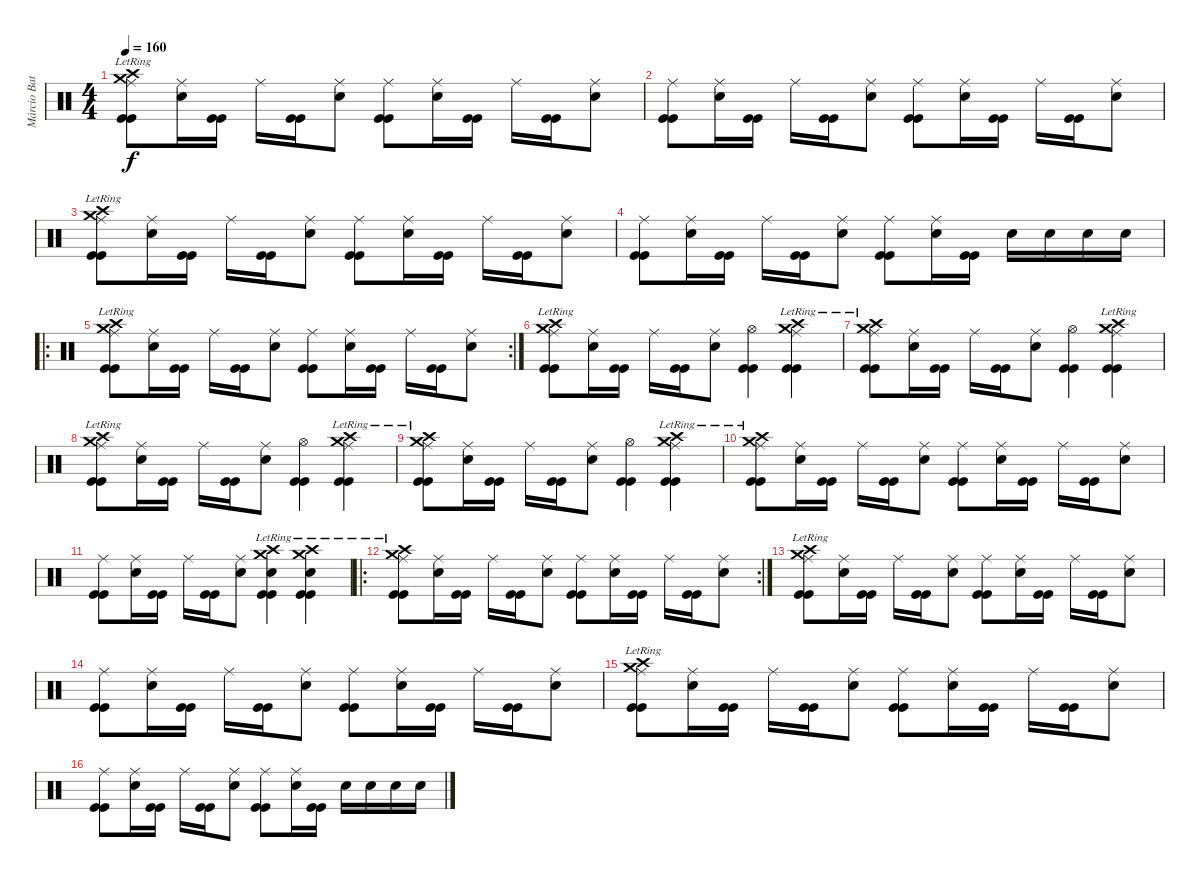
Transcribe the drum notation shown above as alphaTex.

\track ("Márcio Batista" "Márcio Bat") {instrument percussion}
\staff {score}
\articulation defaults
\ts (4 4)
\tempo 160
\clef neutral
\ks c
("Crash high (hit)"{lr} "Crash medium (hit)"{lr} "Ride (middle)" "Kick (hit)" "Kick (hit)").8{dy f} ("Snare (hit) 2" "Ride (middle)").16 ("Kick (hit)" "Kick (hit)").16 "Ride (middle)".16 ("Kick (hit)" "Kick (hit)").16 ("Snare (hit) 2" "Ride (middle)").8 ("Ride (middle)" "Kick (hit)" "Kick (hit)").8 ("Snare (hit) 2" "Ride (middle)").16 ("Kick (hit)" "Kick (hit)").16 "Ride (middle)".16 ("Kick (hit)" "Kick (hit)").16 ("Snare (hit) 2" "Ride (middle)").8 |
("Ride (middle)" "Kick (hit)" "Kick (hit)").8 ("Snare (hit) 2" "Ride (middle)").16 ("Kick (hit)" "Kick (hit)").16 "Ride (middle)".16 ("Kick (hit)" "Kick (hit)").16 ("Snare (hit) 2" "Ride (middle)").8 ("Ride (middle)" "Kick (hit)" "Kick (hit)").8 ("Snare (hit) 2" "Ride (middle)").16 ("Kick (hit)" "Kick (hit)").16 "Ride (middle)".16 ("Kick (hit)" "Kick (hit)").16 ("Snare (hit) 2" "Ride (middle)").8 |
("Crash high (hit)"{lr} "Crash medium (hit)"{lr} "Ride (middle)" "Kick (hit)" "Kick (hit)").8 ("Snare (hit) 2" "Ride (middle)").16 ("Kick (hit)" "Kick (hit)").16 "Ride (middle)".16 ("Kick (hit)" "Kick (hit)").16 ("Snare (hit) 2" "Ride (middle)").8 ("Ride (middle)" "Kick (hit)" "Kick (hit)").8 ("Snare (hit) 2" "Ride (middle)").16 ("Kick (hit)" "Kick (hit)").16 "Ride (middle)".16 ("Kick (hit)" "Kick (hit)").16 ("Snare (hit) 2" "Ride (middle)").8 |
("Ride (middle)" "Kick (hit)" "Kick (hit)").8 ("Snare (hit) 2" "Ride (middle)").16 ("Kick (hit)" "Kick (hit)").16 "Ride (middle)".16 ("Kick (hit)" "Kick (hit)").16 ("Snare (hit) 2" "Ride (middle)").8 ("Ride (middle)" "Kick (hit)" "Kick (hit)").8 ("Snare (hit) 2" "Ride (middle)").16 ("Kick (hit)" "Kick (hit)").16 "Snare (hit) 2".16 "Snare (hit) 2".16 "Snare (hit) 2".16 "Snare (hit) 2".16 |
\ro
\rc 2
("Crash high (hit)"{lr} "Crash medium (hit)"{lr} "Ride (middle)" "Kick (hit)" "Kick (hit)").8 ("Snare (hit) 2" "Ride (middle)").16 ("Kick (hit)" "Kick (hit)").16 "Ride (middle)".16 ("Kick (hit)" "Kick (hit)").16 ("Snare (hit) 2" "Ride (middle)").8 ("Ride (middle)" "Kick (hit)" "Kick (hit)").8 ("Snare (hit) 2" "Ride (middle)").16 ("Kick (hit)" "Kick (hit)").16 "Ride (middle)".16 ("Kick (hit)" "Kick (hit)").16 ("Snare (hit) 2" "Ride (middle)").8 |
("Crash high (hit)"{lr} "Crash medium (hit)"{lr} "Ride (middle)" "Kick (hit)" "Kick (hit)").8 ("Snare (hit) 2" "Ride (middle)").16 ("Kick (hit)" "Kick (hit)").16 "Ride (middle)".16 ("Kick (hit)" "Kick (hit)").16 ("Snare (hit) 2" "Ride (middle)").8 ("Hi-Hat (open)" "Kick (hit)" "Kick (hit)").4 ("Crash high (hit)"{lr} "Crash medium (hit)"{lr} "Ride (middle)" "Kick (hit)" "Kick (hit)").4 |
("Crash high (hit)"{lr} "Crash medium (hit)"{lr} "Ride (middle)" "Kick (hit)" "Kick (hit)").8 ("Snare (hit) 2" "Ride (middle)").16 ("Kick (hit)" "Kick (hit)").16 "Ride (middle)".16 ("Kick (hit)" "Kick (hit)").16 ("Snare (hit) 2" "Ride (middle)").8 ("Hi-Hat (open)" "Kick (hit)" "Kick (hit)").4 ("Crash high (hit)"{lr} "Crash medium (hit)"{lr} "Ride (middle)" "Kick (hit)" "Kick (hit)").4 |
("Crash high (hit)"{lr} "Crash medium (hit)"{lr} "Ride (middle)" "Kick (hit)" "Kick (hit)").8 ("Snare (hit) 2" "Ride (middle)").16 ("Kick (hit)" "Kick (hit)").16 "Ride (middle)".16 ("Kick (hit)" "Kick (hit)").16 ("Snare (hit) 2" "Ride (middle)").8 ("Hi-Hat (open)" "Kick (hit)" "Kick (hit)").4 ("Crash high (hit)"{lr} "Crash medium (hit)"{lr} "Ride (middle)" "Kick (hit)" "Kick (hit)").4 |
("Crash high (hit)"{lr} "Crash medium (hit)"{lr} "Ride (middle)" "Kick (hit)" "Kick (hit)").8 ("Snare (hit) 2" "Ride (middle)").16 ("Kick (hit)" "Kick (hit)").16 "Ride (middle)".16 ("Kick (hit)" "Kick (hit)").16 ("Snare (hit) 2" "Ride (middle)").8 ("Hi-Hat (open)" "Kick (hit)" "Kick (hit)").4 ("Crash high (hit)"{lr} "Crash medium (hit)"{lr} "Ride (middle)" "Kick (hit)" "Kick (hit)").4 |
("Crash high (hit)"{lr} "Crash medium (hit)"{lr} "Ride (middle)" "Kick (hit)" "Kick (hit)").8 ("Snare (hit) 2" "Ride (middle)").16 ("Kick (hit)" "Kick (hit)").16 "Ride (middle)".16 ("Kick (hit)" "Kick (hit)").16 ("Snare (hit) 2" "Ride (middle)").8 ("Ride (middle)" "Kick (hit)" "Kick (hit)").8 ("Snare (hit) 2" "Ride (middle)").16 ("Kick (hit)" "Kick (hit)").16 "Ride (middle)".16 ("Kick (hit)" "Kick (hit)").16 ("Snare (hit) 2" "Ride (middle)").8 |
("Ride (middle)" "Kick (hit)" "Kick (hit)").8 ("Snare (hit) 2" "Ride (middle)").16 ("Kick (hit)" "Kick (hit)").16 "Ride (middle)".16 ("Kick (hit)" "Kick (hit)").16 ("Snare (hit) 2" "Ride (middle)").8 ("Crash high (hit)"{lr} "Crash medium (hit)"{lr} "Snare (hit) 2" "Kick (hit)" "Kick (hit)").4 ("Crash high (hit)"{lr} "Crash medium (hit)"{lr} "Snare (hit) 2" "Kick (hit)" "Kick (hit)").4 |
\ro
\rc 2
("Crash high (hit)"{lr} "Crash medium (hit)"{lr} "Ride (middle)" "Kick (hit)" "Kick (hit)").8 ("Snare (hit) 2" "Ride (middle)").16 ("Kick (hit)" "Kick (hit)").16 "Ride (middle)".16 ("Kick (hit)" "Kick (hit)").16 ("Snare (hit) 2" "Ride (middle)").8 ("Ride (middle)" "Kick (hit)" "Kick (hit)").8 ("Snare (hit) 2" "Ride (middle)").16 ("Kick (hit)" "Kick (hit)").16 "Ride (middle)".16 ("Kick (hit)" "Kick (hit)").16 ("Snare (hit) 2" "Ride (middle)").8 |
("Crash high (hit)"{lr} "Crash medium (hit)"{lr} "Ride (middle)" "Kick (hit)" "Kick (hit)").8 ("Snare (hit) 2" "Ride (middle)").16 ("Kick (hit)" "Kick (hit)").16 "Ride (middle)".16 ("Kick (hit)" "Kick (hit)").16 ("Snare (hit) 2" "Ride (middle)").8 ("Ride (middle)" "Kick (hit)" "Kick (hit)").8 ("Snare (hit) 2" "Ride (middle)").16 ("Kick (hit)" "Kick (hit)").16 "Ride (middle)".16 ("Kick (hit)" "Kick (hit)").16 ("Snare (hit) 2" "Ride (middle)").8 |
("Ride (middle)" "Kick (hit)" "Kick (hit)").8 ("Snare (hit) 2" "Ride (middle)").16 ("Kick (hit)" "Kick (hit)").16 "Ride (middle)".16 ("Kick (hit)" "Kick (hit)").16 ("Snare (hit) 2" "Ride (middle)").8 ("Ride (middle)" "Kick (hit)" "Kick (hit)").8 ("Snare (hit) 2" "Ride (middle)").16 ("Kick (hit)" "Kick (hit)").16 "Ride (middle)".16 ("Kick (hit)" "Kick (hit)").16 ("Snare (hit) 2" "Ride (middle)").8 |
("Crash high (hit)"{lr} "Crash medium (hit)"{lr} "Ride (middle)" "Kick (hit)" "Kick (hit)").8 ("Snare (hit) 2" "Ride (middle)").16 ("Kick (hit)" "Kick (hit)").16 "Ride (middle)".16 ("Kick (hit)" "Kick (hit)").16 ("Snare (hit) 2" "Ride (middle)").8 ("Ride (middle)" "Kick (hit)" "Kick (hit)").8 ("Snare (hit) 2" "Ride (middle)").16 ("Kick (hit)" "Kick (hit)").16 "Ride (middle)".16 ("Kick (hit)" "Kick (hit)").16 ("Snare (hit) 2" "Ride (middle)").8 |
("Ride (middle)" "Kick (hit)" "Kick (hit)").8 ("Snare (hit) 2" "Ride (middle)").16 ("Kick (hit)" "Kick (hit)").16 "Ride (middle)".16 ("Kick (hit)" "Kick (hit)").16 ("Snare (hit) 2" "Ride (middle)").8 ("Ride (middle)" "Kick (hit)" "Kick (hit)").8 ("Snare (hit) 2" "Ride (middle)").16 ("Kick (hit)" "Kick (hit)").16 "Snare (hit) 2".16 "Snare (hit) 2".16 "Snare (hit) 2".16 "Snare (hit) 2".16
